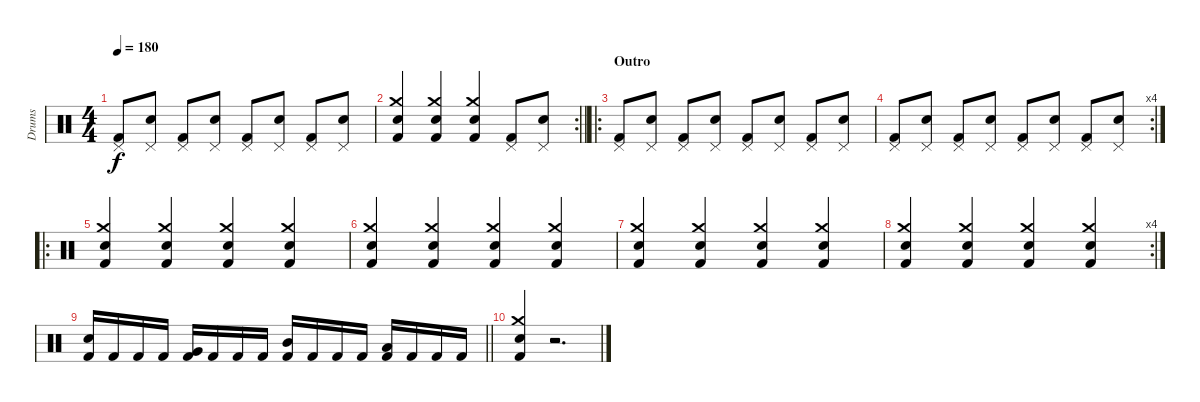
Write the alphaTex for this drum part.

\track ("Drums" "Drums") {instrument percussion}
\staff {score}
\articulation defaults
\ts (4 4)
\tempo 180
\clef neutral
\ks c
("Kick (hit) 2" "Pedal Hi-Hat (hit)").8{dy f} ("Snare (hit) 2" "Pedal Hi-Hat (hit)").8 ("Kick (hit) 2" "Pedal Hi-Hat (hit)").8 ("Snare (hit) 2" "Pedal Hi-Hat (hit)").8 ("Kick (hit) 2" "Pedal Hi-Hat (hit)").8 ("Snare (hit) 2" "Pedal Hi-Hat (hit)").8 ("Kick (hit) 2" "Pedal Hi-Hat (hit)").8 ("Snare (hit) 2" "Pedal Hi-Hat (hit)").8 |
\rc 2
\barLineRight lightlight
("Crash medium (hit)" "Electric Snare (hit)" "Kick (hit) 2").4 ("Crash medium (hit)" "Electric Snare (hit)" "Kick (hit) 2").4 ("Crash medium (hit)" "Electric Snare (hit)" "Kick (hit) 2").4 ("Kick (hit) 2" "Pedal Hi-Hat (hit)").8 ("Snare (hit) 2" "Pedal Hi-Hat (hit)").8 |
\ro
\section ("" "Outro")
("Kick (hit) 2" "Pedal Hi-Hat (hit)").8 ("Snare (hit) 2" "Pedal Hi-Hat (hit)").8 ("Kick (hit) 2" "Pedal Hi-Hat (hit)").8 ("Snare (hit) 2" "Pedal Hi-Hat (hit)").8 ("Kick (hit) 2" "Pedal Hi-Hat (hit)").8 ("Snare (hit) 2" "Pedal Hi-Hat (hit)").8 ("Kick (hit) 2" "Pedal Hi-Hat (hit)").8 ("Snare (hit) 2" "Pedal Hi-Hat (hit)").8 |
\rc 4
("Kick (hit) 2" "Pedal Hi-Hat (hit)").8 ("Snare (hit) 2" "Pedal Hi-Hat (hit)").8 ("Kick (hit) 2" "Pedal Hi-Hat (hit)").8 ("Snare (hit) 2" "Pedal Hi-Hat (hit)").8 ("Kick (hit) 2" "Pedal Hi-Hat (hit)").8 ("Snare (hit) 2" "Pedal Hi-Hat (hit)").8 ("Kick (hit) 2" "Pedal Hi-Hat (hit)").8 ("Snare (hit) 2" "Pedal Hi-Hat (hit)").8 |
\ro
("Crash medium (hit)" "Electric Snare (hit)" "Kick (hit) 2").4 ("Crash medium (hit)" "Electric Snare (hit)" "Kick (hit) 2").4 ("Crash medium (hit)" "Electric Snare (hit)" "Kick (hit) 2").4 ("Crash medium (hit)" "Electric Snare (hit)" "Kick (hit) 2").4 |
("Crash medium (hit)" "Electric Snare (hit)" "Kick (hit) 2").4 ("Crash medium (hit)" "Electric Snare (hit)" "Kick (hit) 2").4 ("Crash medium (hit)" "Electric Snare (hit)" "Kick (hit) 2").4 ("Crash medium (hit)" "Electric Snare (hit)" "Kick (hit) 2").4 |
("Crash medium (hit)" "Electric Snare (hit)" "Kick (hit) 2").4 ("Crash medium (hit)" "Electric Snare (hit)" "Kick (hit) 2").4 ("Crash medium (hit)" "Electric Snare (hit)" "Kick (hit) 2").4 ("Crash medium (hit)" "Electric Snare (hit)" "Kick (hit) 2").4 |
\rc 4
("Crash medium (hit)" "Electric Snare (hit)" "Kick (hit) 2").4 ("Crash medium (hit)" "Electric Snare (hit)" "Kick (hit) 2").4 ("Crash medium (hit)" "Electric Snare (hit)" "Kick (hit) 2").4 ("Crash medium (hit)" "Electric Snare (hit)" "Kick (hit) 2").4 |
\barLineRight lightlight
("Electric Snare (hit)" "Kick (hit) 2").16 "Kick (hit) 2".16 "Kick (hit) 2".16 "Kick (hit) 2".16 ("Very Low Tom (hit)" "Kick (hit) 2").16 "Kick (hit) 2".16 "Kick (hit) 2".16 "Kick (hit) 2".16 ("Mid Tom (hit)" "Kick (hit) 2").16 "Kick (hit) 2".16 "Kick (hit) 2".16 "Kick (hit) 2".16 ("Low Tom (hit)" "Kick (hit) 2").16 "Kick (hit) 2".16 "Kick (hit) 2".16 "Kick (hit) 2".16 |
("Crash medium (hit)" "Electric Snare (hit)" "Kick (hit) 2").4 r.2{d}
